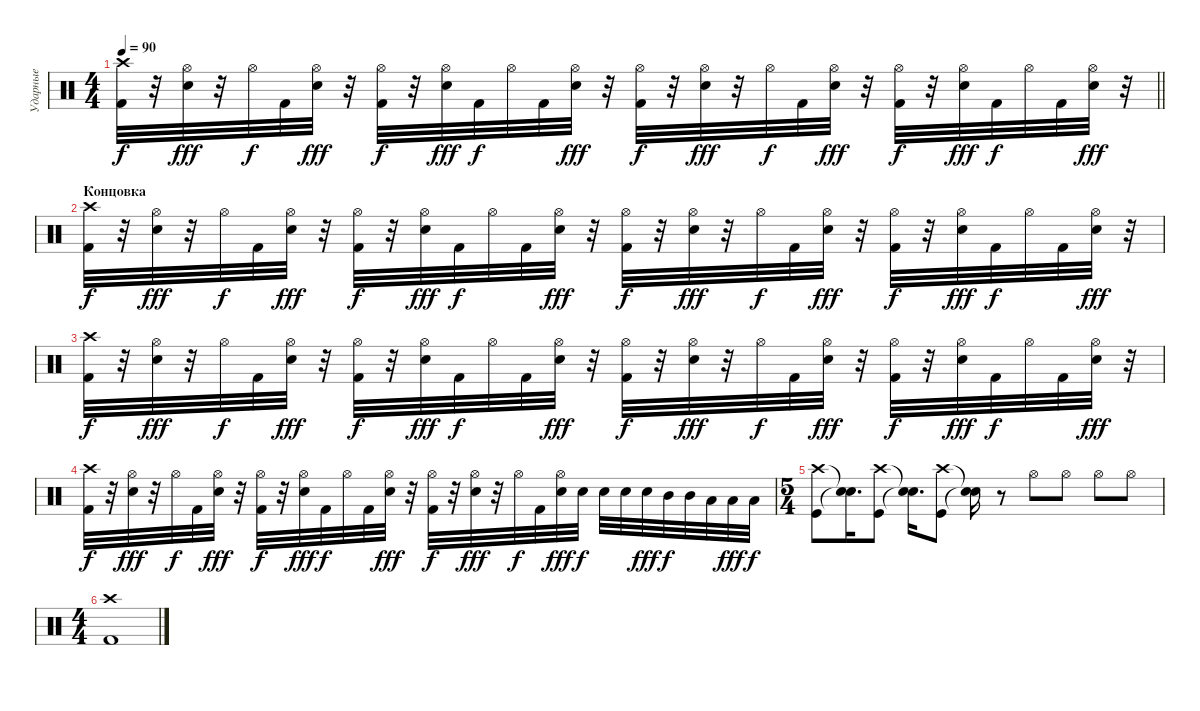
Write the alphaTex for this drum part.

\track ("Ударные" "Ударные") {instrument percussion}
\staff {score}
\articulation defaults
\ts (4 4)
\tempo 90
\clef neutral
\barLineRight lightlight
\ks c
("Crash high (hit)" "Kick (hit) 2").32{dy f} r.32 ("Hi-Hat (open)" "Snare (hit) 2").32{dy fff} r.32 "Hi-Hat (open)".32{dy f} "Kick (hit) 2".32 ("Hi-Hat (open)" "Snare (hit) 2").32{dy fff} r.32 ("Hi-Hat (open)" "Kick (hit) 2").32{dy f} r.32 ("Hi-Hat (open)" "Snare (hit) 2").32{dy fff} "Kick (hit) 2".32{dy f} "Hi-Hat (open)".32 "Kick (hit) 2".32 ("Hi-Hat (open)" "Snare (hit) 2").32{dy fff} r.32 ("Hi-Hat (open)" "Kick (hit) 2").32{dy f} r.32 ("Hi-Hat (open)" "Snare (hit) 2").32{dy fff} r.32 "Hi-Hat (open)".32{dy f} "Kick (hit) 2".32 ("Hi-Hat (open)" "Snare (hit) 2").32{dy fff} r.32 ("Hi-Hat (open)" "Kick (hit) 2").32{dy f} r.32 ("Hi-Hat (open)" "Snare (hit) 2").32{dy fff} "Kick (hit) 2".32{dy f} "Hi-Hat (open)".32 "Kick (hit) 2".32 ("Hi-Hat (open)" "Snare (hit) 2").32{dy fff} r.32 |
\section ("" "Концовка")
("Crash high (hit)" "Kick (hit) 2").32{dy f} r.32 ("Hi-Hat (open)" "Snare (hit) 2").32{dy fff} r.32 "Hi-Hat (open)".32{dy f} "Kick (hit) 2".32 ("Hi-Hat (open)" "Snare (hit) 2").32{dy fff} r.32 ("Hi-Hat (open)" "Kick (hit) 2").32{dy f} r.32 ("Hi-Hat (open)" "Snare (hit) 2").32{dy fff} "Kick (hit) 2".32{dy f} "Hi-Hat (open)".32 "Kick (hit) 2".32 ("Hi-Hat (open)" "Snare (hit) 2").32{dy fff} r.32 ("Hi-Hat (open)" "Kick (hit) 2").32{dy f} r.32 ("Hi-Hat (open)" "Snare (hit) 2").32{dy fff} r.32 "Hi-Hat (open)".32{dy f} "Kick (hit) 2".32 ("Hi-Hat (open)" "Snare (hit) 2").32{dy fff} r.32 ("Hi-Hat (open)" "Kick (hit) 2").32{dy f} r.32 ("Hi-Hat (open)" "Snare (hit) 2").32{dy fff} "Kick (hit) 2".32{dy f} "Hi-Hat (open)".32 "Kick (hit) 2".32 ("Hi-Hat (open)" "Snare (hit) 2").32{dy fff} r.32 |
("Crash high (hit)" "Kick (hit) 2").32{dy f} r.32 ("Hi-Hat (open)" "Snare (hit) 2").32{dy fff} r.32 "Hi-Hat (open)".32{dy f} "Kick (hit) 2".32 ("Hi-Hat (open)" "Snare (hit) 2").32{dy fff} r.32 ("Hi-Hat (open)" "Kick (hit) 2").32{dy f} r.32 ("Hi-Hat (open)" "Snare (hit) 2").32{dy fff} "Kick (hit) 2".32{dy f} "Hi-Hat (open)".32 "Kick (hit) 2".32 ("Hi-Hat (open)" "Snare (hit) 2").32{dy fff} r.32 ("Hi-Hat (open)" "Kick (hit) 2").32{dy f} r.32 ("Hi-Hat (open)" "Snare (hit) 2").32{dy fff} r.32 "Hi-Hat (open)".32{dy f} "Kick (hit) 2".32 ("Hi-Hat (open)" "Snare (hit) 2").32{dy fff} r.32 ("Hi-Hat (open)" "Kick (hit) 2").32{dy f} r.32 ("Hi-Hat (open)" "Snare (hit) 2").32{dy fff} "Kick (hit) 2".32{dy f} "Hi-Hat (open)".32 "Kick (hit) 2".32 ("Hi-Hat (open)" "Snare (hit) 2").32{dy fff} r.32 |
("Crash high (hit)" "Kick (hit) 2").32{dy f} r.32 ("Hi-Hat (open)" "Snare (hit) 2").32{dy fff} r.32 "Hi-Hat (open)".32{dy f} "Kick (hit) 2".32 ("Hi-Hat (open)" "Snare (hit) 2").32{dy fff} r.32 ("Hi-Hat (open)" "Kick (hit) 2").32{dy f} r.32 ("Hi-Hat (open)" "Snare (hit) 2").32{dy fff} "Kick (hit) 2".32{dy f} "Hi-Hat (open)".32 "Kick (hit) 2".32 ("Hi-Hat (open)" "Snare (hit) 2").32{dy fff} r.32 ("Hi-Hat (open)" "Kick (hit) 2").32{dy f} r.32 ("Hi-Hat (open)" "Snare (hit) 2").32{dy fff} r.32 "Hi-Hat (open)".32{dy f} "Kick (hit) 2".32 ("Hi-Hat (open)" "Snare (hit) 2").32{dy fff} "Snare (hit) 2".32{dy f} "Snare (hit) 2".32 "Snare (hit) 2".32 "Snare (hit) 2".32{dy fff} "Mid Tom (hit)".32{dy f} "Mid Tom (hit)".32 "Low Tom (hit)".32 "Low Tom (hit)".32{dy fff} "Low Tom (hit)".32{dy f} |
\ts (5 4)
("Kick (hit)" "Crash high (hit)").8 ("Snare (hit)"{t} "Snare (hit)"{t}).16{d} ("Kick (hit)" "Crash high (hit)").8 ("Snare (hit)"{t} "Snare (hit)"{t}).16{d} ("Kick (hit)" "Crash high (hit)").8 ("Snare (hit)"{t} "Snare (hit)"{t}).16 r.8 "Hi-Hat (open)".8 "Hi-Hat (open)".8 "Hi-Hat (open)".8 "Hi-Hat (open)".8 |
\ts (4 4)
("Crash high (hit)" "Kick (hit) 2").1
